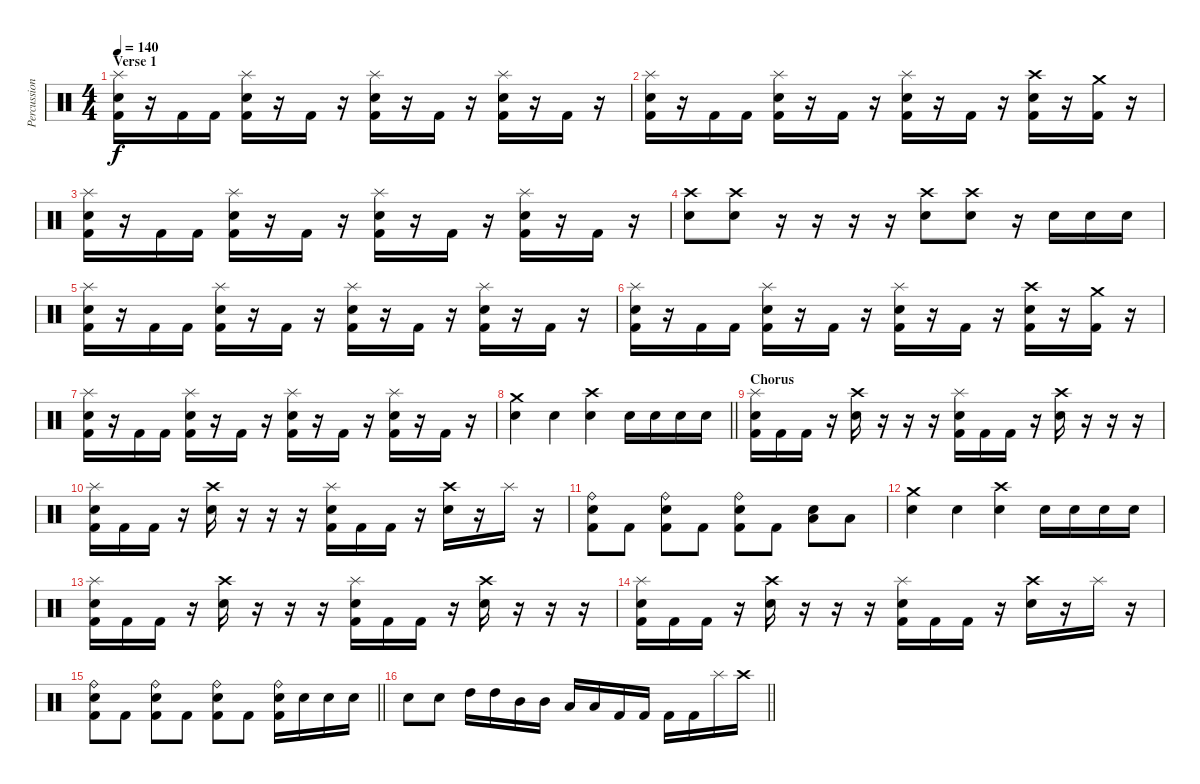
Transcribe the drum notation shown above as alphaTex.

\track ("Percussion" "Percussion") {instrument percussion}
\staff {score}
\articulation defaults
\ts (4 4)
\section ("" "Verse 1")
\tempo 140
\clef neutral
\ks c
("Splash (hit)" "Snare (hit) 2" "Kick (hit) 2").16{dy f} r.16 "Kick (hit) 2".16 "Kick (hit) 2".16 ("Splash (hit)" "Snare (hit) 2" "Kick (hit) 2").16 r.16 "Kick (hit) 2".16 r.16 ("Splash (hit)" "Snare (hit) 2" "Kick (hit) 2").16 r.16 "Kick (hit) 2".16 r.16 ("Splash (hit)" "Snare (hit) 2" "Kick (hit) 2").16 r.16 "Kick (hit) 2".16 r.16 |
("Splash (hit)" "Snare (hit) 2" "Kick (hit) 2").16 r.16 "Kick (hit) 2".16 "Kick (hit) 2".16 ("Splash (hit)" "Snare (hit) 2" "Kick (hit) 2").16 r.16 "Kick (hit) 2".16 r.16 ("Splash (hit)" "Snare (hit) 2" "Kick (hit) 2").16 r.16 "Kick (hit) 2".16 r.16 ("Crash high (hit)" "Snare (hit) 2" "Kick (hit) 2").16 r.16 ("Crash medium (hit)" "Kick (hit) 2").16 r.16 |
("Splash (hit)" "Snare (hit) 2" "Kick (hit) 2").16 r.16 "Kick (hit) 2".16 "Kick (hit) 2".16 ("Splash (hit)" "Snare (hit) 2" "Kick (hit) 2").16 r.16 "Kick (hit) 2".16 r.16 ("Splash (hit)" "Snare (hit) 2" "Kick (hit) 2").16 r.16 "Kick (hit) 2".16 r.16 ("Splash (hit)" "Snare (hit) 2" "Kick (hit) 2").16 r.16 "Kick (hit) 2".16 r.16 |
("Crash high (hit)" "Snare (hit) 2").8 ("Crash high (hit)" "Snare (hit) 2").8 r.16 r.16 r.16 r.16 ("Crash high (hit)" "Snare (hit) 2").8 ("Crash high (hit)" "Snare (hit) 2").8 r.16 "Snare (hit) 2".16 "Snare (hit) 2".16 "Snare (hit) 2".16 |
("Splash (hit)" "Snare (hit) 2" "Kick (hit) 2").16 r.16 "Kick (hit) 2".16 "Kick (hit) 2".16 ("Splash (hit)" "Snare (hit) 2" "Kick (hit) 2").16 r.16 "Kick (hit) 2".16 r.16 ("Splash (hit)" "Snare (hit) 2" "Kick (hit) 2").16 r.16 "Kick (hit) 2".16 r.16 ("Splash (hit)" "Snare (hit) 2" "Kick (hit) 2").16 r.16 "Kick (hit) 2".16 r.16 |
("Splash (hit)" "Snare (hit) 2" "Kick (hit) 2").16 r.16 "Kick (hit) 2".16 "Kick (hit) 2".16 ("Splash (hit)" "Snare (hit) 2" "Kick (hit) 2").16 r.16 "Kick (hit) 2".16 r.16 ("Splash (hit)" "Snare (hit) 2" "Kick (hit) 2").16 r.16 "Kick (hit) 2".16 r.16 ("Crash high (hit)" "Snare (hit) 2" "Kick (hit) 2").16 r.16 ("Crash medium (hit)" "Kick (hit) 2").16 r.16 |
("Splash (hit)" "Snare (hit) 2" "Kick (hit) 2").16 r.16 "Kick (hit) 2".16 "Kick (hit) 2".16 ("Splash (hit)" "Snare (hit) 2" "Kick (hit) 2").16 r.16 "Kick (hit) 2".16 r.16 ("Splash (hit)" "Snare (hit) 2" "Kick (hit) 2").16 r.16 "Kick (hit) 2".16 r.16 ("Splash (hit)" "Snare (hit) 2" "Kick (hit) 2").16 r.16 "Kick (hit) 2".16 r.16 |
\barLineRight lightlight
("Crash medium (hit)" "Snare (hit) 2").4 "Snare (hit) 2".4 ("Crash high (hit)" "Snare (hit) 2").4 "Snare (hit) 2".16 "Snare (hit) 2".16 "Snare (hit) 2".16 "Snare (hit) 2".16 |
\section ("" "Chorus")
("Splash (hit)" "Snare (hit) 2" "Kick (hit) 2").16 "Kick (hit) 2".16 "Kick (hit) 2".16 r.16 ("Crash high (hit)" "Snare (hit) 2").16 r.16 r.16 r.16 ("Splash (hit)" "Snare (hit) 2" "Kick (hit) 2").16 "Kick (hit) 2".16 "Kick (hit) 2".16 r.16 ("Crash high (hit)" "Snare (hit) 2").16 r.16 r.16 r.16 |
("Splash (hit)" "Snare (hit) 2" "Kick (hit) 2").16 "Kick (hit) 2".16 "Kick (hit) 2".16 r.16 ("Crash high (hit)" "Snare (hit) 2").16 r.16 r.16 r.16 ("Splash (hit)" "Snare (hit) 2" "Kick (hit) 2").16 "Kick (hit) 2".16 "Kick (hit) 2".16 r.16 ("Crash high (hit)" "Snare (hit) 2").16 r.16 "Splash (hit)".16 r.16 |
("Ride (bell)" "Snare (hit) 2" "Kick (hit) 2").8 "Kick (hit) 2".8 ("Ride (bell)" "Snare (hit) 2" "Kick (hit) 2").8 "Kick (hit) 2".8 ("Ride (bell)" "Snare (hit) 2" "Kick (hit) 2").8 "Kick (hit) 2".8 ("Low Tom (hit)" "Snare (hit) 2").8 "Low Floor Tom (hit)".8 |
("Crash medium (hit)" "Snare (hit) 2").4 "Snare (hit) 2".4 ("Crash high (hit)" "Snare (hit) 2").4 "Snare (hit) 2".16 "Snare (hit) 2".16 "Snare (hit) 2".16 "Snare (hit) 2".16 |
("Splash (hit)" "Snare (hit) 2" "Kick (hit) 2").16 "Kick (hit) 2".16 "Kick (hit) 2".16 r.16 ("Crash high (hit)" "Snare (hit) 2").16 r.16 r.16 r.16 ("Splash (hit)" "Snare (hit) 2" "Kick (hit) 2").16 "Kick (hit) 2".16 "Kick (hit) 2".16 r.16 ("Crash high (hit)" "Snare (hit) 2").16 r.16 r.16 r.16 |
("Splash (hit)" "Snare (hit) 2" "Kick (hit) 2").16 "Kick (hit) 2".16 "Kick (hit) 2".16 r.16 ("Crash high (hit)" "Snare (hit) 2").16 r.16 r.16 r.16 ("Splash (hit)" "Snare (hit) 2" "Kick (hit) 2").16 "Kick (hit) 2".16 "Kick (hit) 2".16 r.16 ("Crash high (hit)" "Snare (hit) 2").16 r.16 "Splash (hit)".16 r.16 |
\barLineRight lightlight
("Ride (bell)" "Snare (hit) 2" "Kick (hit) 2").8 "Kick (hit) 2".8 ("Ride (bell)" "Snare (hit) 2" "Kick (hit) 2").8 "Kick (hit) 2".8 ("Ride (bell)" "Snare (hit) 2" "Kick (hit) 2").8 "Kick (hit) 2".8 ("Ride (bell)" "Snare (hit) 2" "Kick (hit) 2").16 "Snare (hit) 2".16 "Snare (hit) 2".16 "Snare (hit) 2".16 |
\barLineRight lightlight "Snare (hit) 2".8 "Snare (hit) 2".8 "High Tom (hit)".16 "High Tom (hit)".16 "Mid Tom (hit)".16 "Mid Tom (hit)".16 "Low Tom (hit)".16 "Low Tom (hit)".16 "Kick (hit) 2".16 "Kick (hit) 2".16 "Kick (hit) 2".16 "Kick (hit) 2".16 "Splash (hit)".16 "Crash high (hit)".16
